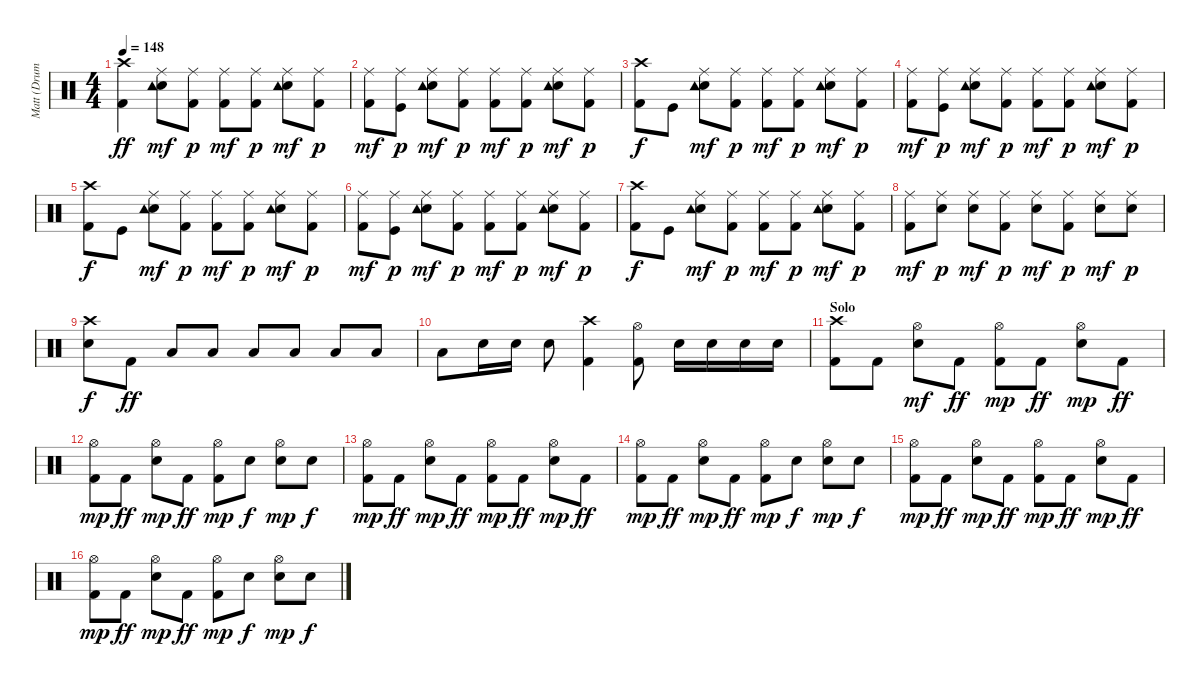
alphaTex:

\track ("Matt (Drums)" "Matt (Drum") {instrument percussion}
\staff {score}
\articulation defaults
\ts (4 4)
\tempo 148
\clef neutral
\ks c
("Kick (hit) 2" "Crash high (hit)").4{dy ff} ("Electric Snare (hit)" "Tambourine (hit)" "Ride (middle)").8{dy mf} ("Kick (hit) 2" "Ride (middle)").8{dy p} ("Kick (hit) 2" "Ride (middle)").8{dy mf} ("Kick (hit) 2" "Ride (middle)").8{dy p} ("Electric Snare (hit)" "Tambourine (hit)" "Ride (middle)").8{dy mf} ("Kick (hit) 2" "Ride (middle)").8{dy p} |
("Kick (hit) 2" "Ride (middle)").8{dy mf} ("Kick (hit)" "Ride (middle)").8{dy p} ("Electric Snare (hit)" "Tambourine (hit)" "Ride (middle)").8{dy mf} ("Kick (hit) 2" "Ride (middle)").8{dy p} ("Kick (hit) 2" "Ride (middle)").8{dy mf} ("Kick (hit) 2" "Ride (middle)").8{dy p} ("Electric Snare (hit)" "Tambourine (hit)" "Ride (middle)").8{dy mf} ("Kick (hit) 2" "Ride (middle)").8{dy p} |
("Kick (hit) 2" "Crash high (hit)").8{dy f} "Kick (hit)".8 ("Electric Snare (hit)" "Tambourine (hit)" "Ride (middle)").8{dy mf} ("Kick (hit) 2" "Ride (middle)").8{dy p} ("Kick (hit) 2" "Ride (middle)").8{dy mf} ("Kick (hit) 2" "Ride (middle)").8{dy p} ("Electric Snare (hit)" "Tambourine (hit)" "Ride (middle)").8{dy mf} ("Kick (hit) 2" "Ride (middle)").8{dy p} |
("Kick (hit) 2" "Ride (middle)").8{dy mf} ("Kick (hit)" "Ride (middle)").8{dy p} ("Electric Snare (hit)" "Tambourine (hit)" "Ride (middle)").8{dy mf} ("Kick (hit) 2" "Ride (middle)").8{dy p} ("Kick (hit) 2" "Ride (middle)").8{dy mf} ("Kick (hit) 2" "Ride (middle)").8{dy p} ("Electric Snare (hit)" "Tambourine (hit)" "Ride (middle)").8{dy mf} ("Kick (hit) 2" "Ride (middle)").8{dy p} |
("Kick (hit) 2" "Crash high (hit)").8{dy f} "Kick (hit)".8 ("Electric Snare (hit)" "Tambourine (hit)" "Ride (middle)").8{dy mf} ("Kick (hit) 2" "Ride (middle)").8{dy p} ("Kick (hit) 2" "Ride (middle)").8{dy mf} ("Kick (hit) 2" "Ride (middle)").8{dy p} ("Electric Snare (hit)" "Tambourine (hit)" "Ride (middle)").8{dy mf} ("Kick (hit) 2" "Ride (middle)").8{dy p} |
("Kick (hit) 2" "Ride (middle)").8{dy mf} ("Kick (hit)" "Ride (middle)").8{dy p} ("Electric Snare (hit)" "Tambourine (hit)" "Ride (middle)").8{dy mf} ("Kick (hit) 2" "Ride (middle)").8{dy p} ("Kick (hit) 2" "Ride (middle)").8{dy mf} ("Kick (hit) 2" "Ride (middle)").8{dy p} ("Electric Snare (hit)" "Tambourine (hit)" "Ride (middle)").8{dy mf} ("Kick (hit) 2" "Ride (middle)").8{dy p} |
("Kick (hit) 2" "Crash high (hit)").8{dy f} "Kick (hit)".8 ("Electric Snare (hit)" "Tambourine (hit)" "Ride (middle)").8{dy mf} ("Kick (hit) 2" "Ride (middle)").8{dy p} ("Kick (hit) 2" "Ride (middle)").8{dy mf} ("Kick (hit) 2" "Ride (middle)").8{dy p} ("Electric Snare (hit)" "Tambourine (hit)" "Ride (middle)").8{dy mf} ("Kick (hit) 2" "Ride (middle)").8{dy p} |
("Kick (hit) 2" "Ride (middle)").8{dy mf} ("Electric Snare (hit)" "Ride (middle)").8{dy p} ("Electric Snare (hit)" "Ride (middle)").8{dy mf} ("Kick (hit) 2" "Ride (middle)").8{dy p} ("Electric Snare (hit)" "Ride (middle)").8{dy mf} ("Kick (hit) 2" "Ride (middle)").8{dy p} ("Electric Snare (hit)" "Ride (middle)").8{dy mf} ("Electric Snare (hit)" "Ride (middle)").8{dy p} |
("Electric Snare (hit)" "Crash high (hit)").8{dy f} "Kick (hit) 2".8{dy ff} "Low Tom (hit)".8 "Low Tom (hit)".8 "Low Tom (hit)".8 "Low Tom (hit)".8 "Low Tom (hit)".8 "Low Tom (hit)".8 |
"Low Tom (hit)".8 "Electric Snare (hit)".16 "Electric Snare (hit)".16 "Electric Snare (hit)".8 ("Kick (hit) 2" "Crash high (hit)").4 ("Kick (hit) 2" "Hi-Hat (open)").8 "Electric Snare (hit)".16 "Electric Snare (hit)".16 "Electric Snare (hit)".16 "Electric Snare (hit)".16 |
\section ("" "Solo")
("Kick (hit) 2" "Crash high (hit)").8 "Kick (hit) 2".8 ("Electric Snare (hit)" "Hi-Hat (open)").8{dy mf} "Kick (hit) 2".8{dy ff} ("Kick (hit) 2" "Hi-Hat (open)").8{dy mp} "Kick (hit) 2".8{dy ff} ("Electric Snare (hit)" "Hi-Hat (open)").8{dy mp} "Kick (hit) 2".8{dy ff} |
("Kick (hit) 2" "Hi-Hat (open)").8{dy mp} "Kick (hit) 2".8{dy ff} ("Electric Snare (hit)" "Hi-Hat (open)").8{dy mp} "Kick (hit) 2".8{dy ff} ("Kick (hit) 2" "Hi-Hat (open)").8{dy mp} "Electric Snare (hit)".8{dy f} ("Electric Snare (hit)" "Hi-Hat (open)").8{dy mp} "Electric Snare (hit)".8{dy f} |
("Kick (hit) 2" "Hi-Hat (open)").8{dy mp} "Kick (hit) 2".8{dy ff} ("Electric Snare (hit)" "Hi-Hat (open)").8{dy mp} "Kick (hit) 2".8{dy ff} ("Kick (hit) 2" "Hi-Hat (open)").8{dy mp} "Kick (hit) 2".8{dy ff} ("Electric Snare (hit)" "Hi-Hat (open)").8{dy mp} "Kick (hit) 2".8{dy ff} |
("Kick (hit) 2" "Hi-Hat (open)").8{dy mp} "Kick (hit) 2".8{dy ff} ("Electric Snare (hit)" "Hi-Hat (open)").8{dy mp} "Kick (hit) 2".8{dy ff} ("Kick (hit) 2" "Hi-Hat (open)").8{dy mp} "Electric Snare (hit)".8{dy f} ("Electric Snare (hit)" "Hi-Hat (open)").8{dy mp} "Electric Snare (hit)".8{dy f} |
("Kick (hit) 2" "Hi-Hat (open)").8{dy mp} "Kick (hit) 2".8{dy ff} ("Electric Snare (hit)" "Hi-Hat (open)").8{dy mp} "Kick (hit) 2".8{dy ff} ("Kick (hit) 2" "Hi-Hat (open)").8{dy mp} "Kick (hit) 2".8{dy ff} ("Electric Snare (hit)" "Hi-Hat (open)").8{dy mp} "Kick (hit) 2".8{dy ff} |
("Kick (hit) 2" "Hi-Hat (open)").8{dy mp} "Kick (hit) 2".8{dy ff} ("Electric Snare (hit)" "Hi-Hat (open)").8{dy mp} "Kick (hit) 2".8{dy ff} ("Kick (hit) 2" "Hi-Hat (open)").8{dy mp} "Electric Snare (hit)".8{dy f} ("Electric Snare (hit)" "Hi-Hat (open)").8{dy mp} "Electric Snare (hit)".8{dy f}
